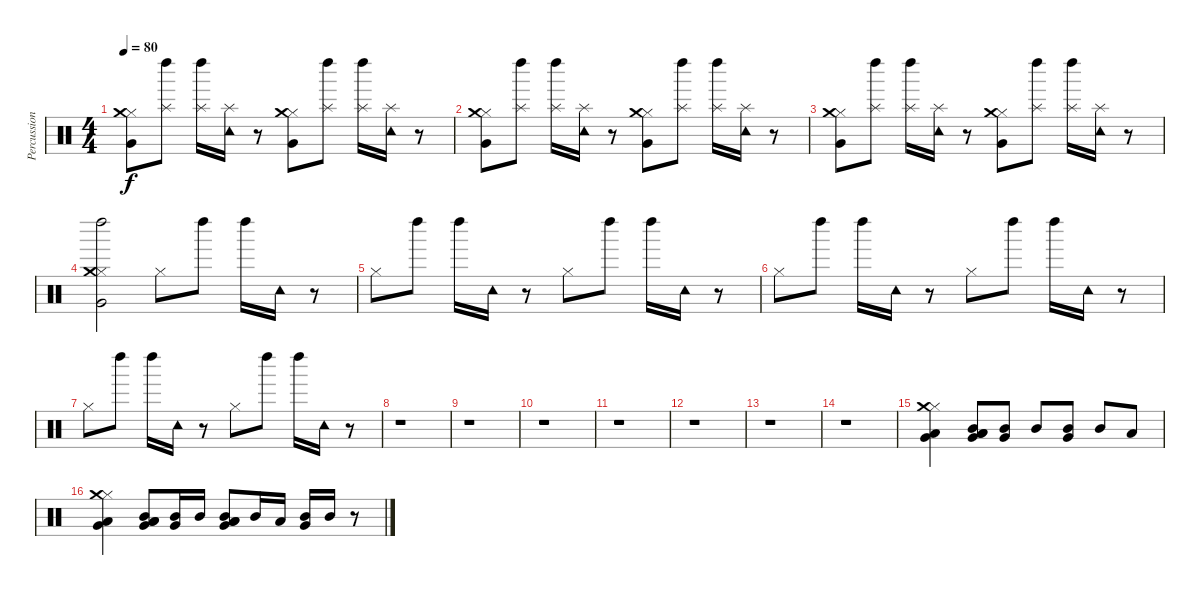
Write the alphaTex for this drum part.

\track ("Percussion" "Percussion") {instrument percussion}
\staff {score}
\articulation defaults
\ts (4 4)
\tempo 80
\clef neutral
\ks c
("Hi-Hat (closed)" "Very Low Tom (hit)" "Crash medium (hit)").8{dy f} ("Left Maraca (hit)" "Splash (hit)").8 ("Left Maraca (hit)" "Splash (hit)").16 ("Tambourine (hit)" "Splash (hit)").16 r.8 ("Hi-Hat (closed)" "Very Low Tom (hit)" "Crash medium (hit)").8 ("Left Maraca (hit)" "Splash (hit)").8 ("Left Maraca (hit)" "Splash (hit)").16 ("Tambourine (hit)" "Splash (hit)").16 r.8 |
("Hi-Hat (closed)" "Very Low Tom (hit)" "Crash medium (hit)").8 ("Left Maraca (hit)" "Splash (hit)").8 ("Left Maraca (hit)" "Splash (hit)").16 ("Tambourine (hit)" "Splash (hit)").16 r.8 ("Hi-Hat (closed)" "Very Low Tom (hit)" "Crash medium (hit)").8 ("Left Maraca (hit)" "Splash (hit)").8 ("Left Maraca (hit)" "Splash (hit)").16 ("Tambourine (hit)" "Splash (hit)").16 r.8 |
("Hi-Hat (closed)" "Very Low Tom (hit)" "Crash medium (hit)").8 ("Left Maraca (hit)" "Splash (hit)").8 ("Left Maraca (hit)" "Splash (hit)").16 ("Tambourine (hit)" "Splash (hit)").16 r.8 ("Hi-Hat (closed)" "Very Low Tom (hit)" "Crash medium (hit)").8 ("Left Maraca (hit)" "Splash (hit)").8 ("Left Maraca (hit)" "Splash (hit)").16 ("Tambourine (hit)" "Splash (hit)").16 r.8 |
("Hi-Hat (closed)" "Very Low Tom (hit)" "Crash medium (hit)" "Left Maraca (hit)").2 "Hi-Hat (closed)".8 "Left Maraca (hit)".8 "Left Maraca (hit)".16 "Tambourine (hit)".16 r.8 |
"Hi-Hat (closed)".8 "Left Maraca (hit)".8 "Left Maraca (hit)".16 "Tambourine (hit)".16 r.8 "Hi-Hat (closed)".8 "Left Maraca (hit)".8 "Left Maraca (hit)".16 "Tambourine (hit)".16 r.8 |
"Hi-Hat (closed)".8 "Left Maraca (hit)".8 "Left Maraca (hit)".16 "Tambourine (hit)".16 r.8 "Hi-Hat (closed)".8 "Left Maraca (hit)".8 "Left Maraca (hit)".16 "Tambourine (hit)".16 r.8 |
"Hi-Hat (closed)".8 "Left Maraca (hit)".8 "Left Maraca (hit)".16 "Tambourine (hit)".16 r.8 "Hi-Hat (closed)".8 "Left Maraca (hit)".8 "Left Maraca (hit)".16 "Tambourine (hit)".16 r.8 |
r.1 |
r.1 |
r.1 |
r.1 |
r.1 |
r.1 |
r.1 |
("Hi-Hat (closed)" "Very Low Tom (hit)" "Crash medium (hit)" "Low Tom (hit)").4 ("Low Floor Tom (hit)" "Mid Tom (hit)" "Very Low Tom (hit)" "Low Tom (hit)").8 ("Very Low Tom (hit)" "Mid Tom (hit)").8 "Mid Tom (hit)".8 ("Very Low Tom (hit)" "Mid Tom (hit)").8 "Mid Tom (hit)".8 "Low Tom (hit)".8 |
("Hi-Hat (closed)" "Very Low Tom (hit)" "Crash medium (hit)" "Low Tom (hit)").4 ("Low Floor Tom (hit)" "Mid Tom (hit)" "Very Low Tom (hit)" "Low Tom (hit)").8 ("Very Low Tom (hit)" "Mid Tom (hit)").16 "Mid Tom (hit)".16 ("Low Floor Tom (hit)" "Mid Tom (hit)" "Very Low Tom (hit)" "Low Tom (hit)").8 "Mid Tom (hit)".16 "Low Tom (hit)".16 ("Very Low Tom (hit)" "Mid Tom (hit)").16 "Mid Tom (hit)".16 r.8
